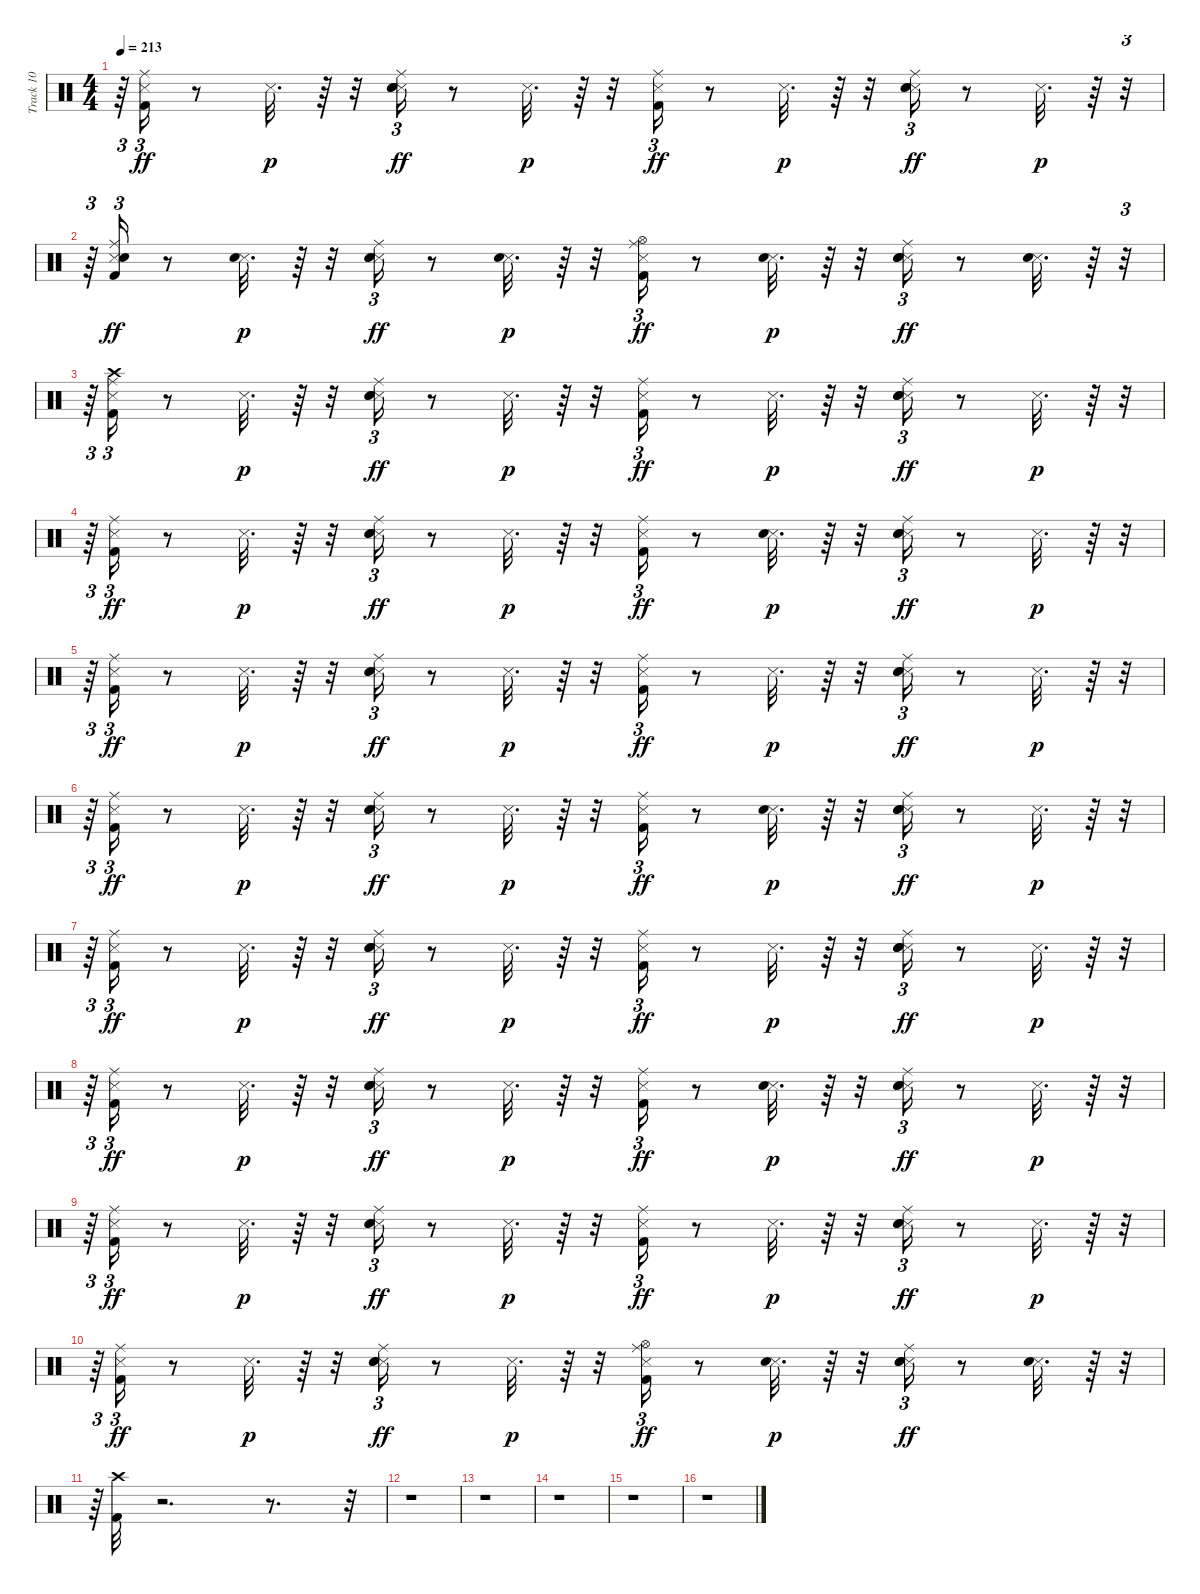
\track ("Track 10" "Track 10") {instrument percussion}
\staff {score}
\articulation defaults
\ts (4 4)
\tempo 213
\clef neutral
\ks c
r.64{tu (3 2) dy p} ("Kick (hit) 2" "Snare (side stick) 3" "Ride (middle)").16{tu (3 2) dy ff} r.8 "Snare (side stick) 3".32{d dy p} r.64 r.32 ("Snare (side stick) 3" "Hand Clap (hit)" "Electric Snare (hit)" "Ride (middle)").16{tu (3 2) dy ff} r.8 "Snare (side stick) 3".32{d dy p} r.64 r.32 ("Kick (hit) 2" "Snare (side stick) 3" "Ride (middle)").16{tu (3 2) dy ff} r.8 "Snare (side stick) 3".32{d dy p} r.64 r.32 ("Snare (side stick) 3" "Hand Clap (hit)" "Electric Snare (hit)" "Ride (middle)").16{tu (3 2) dy ff} r.8 "Snare (side stick) 3".32{d dy p} r.64 r.32{tu (3 2)} |
r.64{tu (3 2)} ("Kick (hit) 2" "Snare (side stick) 3" "Electric Snare (hit)" "Ride (middle)").16{tu (3 2) dy ff} r.8 ("Snare (side stick) 3" "Electric Snare (hit)").32{d dy p} r.64 r.32 ("Snare (side stick) 3" "Hand Clap (hit)" "Electric Snare (hit)" "Ride (middle)").16{tu (3 2) dy ff} r.8 ("Snare (side stick) 3" "Electric Snare (hit)").32{d dy p} r.64 r.32 ("Kick (hit) 2" "Snare (side stick) 3" "Hi-Hat (open)" "Ride (middle)").16{tu (3 2) dy ff} r.8 ("Snare (side stick) 3" "Electric Snare (hit)").32{d dy p} r.64 r.32 ("Snare (side stick) 3" "Hand Clap (hit)" "Electric Snare (hit)" "Ride (middle)").16{tu (3 2) dy ff} r.8 ("Snare (side stick) 3" "Electric Snare (hit)").32{d} r.64 r.32{tu (3 2)} |
r.64{tu (3 2)} ("Kick (hit) 2" "Snare (side stick) 3" "Crash high (hit)" "Ride (middle)").16{tu (3 2)} r.8 "Snare (side stick) 3".32{d dy p} r.64 r.32 ("Snare (side stick) 3" "Hand Clap (hit)" "Electric Snare (hit)" "Ride (middle)").16{tu (3 2) dy ff} r.8 "Snare (side stick) 3".32{d dy p} r.64 r.32 ("Kick (hit) 2" "Snare (side stick) 3" "Ride (middle)").16{tu (3 2) dy ff} r.8 "Snare (side stick) 3".32{d dy p} r.64 r.32 ("Snare (side stick) 3" "Hand Clap (hit)" "Electric Snare (hit)" "Ride (middle)").16{tu (3 2) dy ff} r.8 "Snare (side stick) 3".32{d dy p} r.64 r.32{tu (3 2)} |
r.64{tu (3 2)} ("Kick (hit) 2" "Snare (side stick) 3" "Ride (middle)").16{tu (3 2) dy ff} r.8 "Snare (side stick) 3".32{d dy p} r.64 r.32 ("Snare (side stick) 3" "Hand Clap (hit)" "Electric Snare (hit)" "Ride (middle)").16{tu (3 2) dy ff} r.8 "Snare (side stick) 3".32{d dy p} r.64 r.32 ("Kick (hit) 2" "Snare (side stick) 3" "Ride (middle)").16{tu (3 2) dy ff} r.8 ("Snare (side stick) 3" "Electric Snare (hit)").32{d dy p} r.64 r.32 ("Snare (side stick) 3" "Hand Clap (hit)" "Electric Snare (hit)" "Ride (middle)").16{tu (3 2) dy ff} r.8 "Snare (side stick) 3".32{d dy p} r.64 r.32{tu (3 2)} |
r.64{tu (3 2)} ("Kick (hit) 2" "Snare (side stick) 3" "Ride (middle)").16{tu (3 2) dy ff} r.8 "Snare (side stick) 3".32{d dy p} r.64 r.32 ("Snare (side stick) 3" "Hand Clap (hit)" "Electric Snare (hit)" "Ride (middle)").16{tu (3 2) dy ff} r.8 "Snare (side stick) 3".32{d dy p} r.64 r.32 ("Kick (hit) 2" "Snare (side stick) 3" "Ride (middle)").16{tu (3 2) dy ff} r.8 "Snare (side stick) 3".32{d dy p} r.64 r.32 ("Snare (side stick) 3" "Hand Clap (hit)" "Electric Snare (hit)" "Ride (middle)").16{tu (3 2) dy ff} r.8 "Snare (side stick) 3".32{d dy p} r.64 r.32{tu (3 2)} |
r.64{tu (3 2)} ("Kick (hit) 2" "Snare (side stick) 3" "Ride (middle)").16{tu (3 2) dy ff} r.8 "Snare (side stick) 3".32{d dy p} r.64 r.32 ("Snare (side stick) 3" "Hand Clap (hit)" "Electric Snare (hit)" "Ride (middle)").16{tu (3 2) dy ff} r.8 "Snare (side stick) 3".32{d dy p} r.64 r.32 ("Kick (hit) 2" "Snare (side stick) 3" "Ride (middle)").16{tu (3 2) dy ff} r.8 ("Snare (side stick) 3" "Electric Snare (hit)").32{d dy p} r.64 r.32 ("Snare (side stick) 3" "Hand Clap (hit)" "Electric Snare (hit)" "Ride (middle)").16{tu (3 2) dy ff} r.8 "Snare (side stick) 3".32{d dy p} r.64 r.32{tu (3 2)} |
r.64{tu (3 2)} ("Kick (hit) 2" "Snare (side stick) 3" "Ride (middle)").16{tu (3 2) dy ff} r.8 "Snare (side stick) 3".32{d dy p} r.64 r.32 ("Snare (side stick) 3" "Hand Clap (hit)" "Electric Snare (hit)" "Ride (middle)").16{tu (3 2) dy ff} r.8 "Snare (side stick) 3".32{d dy p} r.64 r.32 ("Kick (hit) 2" "Snare (side stick) 3" "Ride (middle)").16{tu (3 2) dy ff} r.8 "Snare (side stick) 3".32{d dy p} r.64 r.32 ("Snare (side stick) 3" "Hand Clap (hit)" "Electric Snare (hit)" "Ride (middle)").16{tu (3 2) dy ff} r.8 "Snare (side stick) 3".32{d dy p} r.64 r.32{tu (3 2)} |
r.64{tu (3 2)} ("Kick (hit) 2" "Snare (side stick) 3" "Ride (middle)").16{tu (3 2) dy ff} r.8 "Snare (side stick) 3".32{d dy p} r.64 r.32 ("Snare (side stick) 3" "Hand Clap (hit)" "Electric Snare (hit)" "Ride (middle)").16{tu (3 2) dy ff} r.8 "Snare (side stick) 3".32{d dy p} r.64 r.32 ("Kick (hit) 2" "Snare (side stick) 3" "Ride (middle)").16{tu (3 2) dy ff} r.8 ("Snare (side stick) 3" "Electric Snare (hit)").32{d dy p} r.64 r.32 ("Snare (side stick) 3" "Hand Clap (hit)" "Electric Snare (hit)" "Ride (middle)").16{tu (3 2) dy ff} r.8 "Snare (side stick) 3".32{d dy p} r.64 r.32{tu (3 2)} |
r.64{tu (3 2)} ("Kick (hit) 2" "Snare (side stick) 3" "Ride (middle)").16{tu (3 2) dy ff} r.8 "Snare (side stick) 3".32{d dy p} r.64 r.32 ("Snare (side stick) 3" "Hand Clap (hit)" "Electric Snare (hit)" "Ride (middle)").16{tu (3 2) dy ff} r.8 "Snare (side stick) 3".32{d dy p} r.64 r.32 ("Kick (hit) 2" "Snare (side stick) 3" "Ride (middle)").16{tu (3 2) dy ff} r.8 "Snare (side stick) 3".32{d dy p} r.64 r.32 ("Snare (side stick) 3" "Hand Clap (hit)" "Electric Snare (hit)" "Ride (middle)").16{tu (3 2) dy ff} r.8 "Snare (side stick) 3".32{d dy p} r.64 r.32{tu (3 2)} |
r.64{tu (3 2)} ("Kick (hit) 2" "Snare (side stick) 3" "Ride (middle)").16{tu (3 2) dy ff} r.8 "Snare (side stick) 3".32{d dy p} r.64 r.32 ("Snare (side stick) 3" "Hand Clap (hit)" "Electric Snare (hit)" "Ride (middle)").16{tu (3 2) dy ff} r.8 "Snare (side stick) 3".32{d dy p} r.64 r.32 ("Kick (hit) 2" "Snare (side stick) 3" "Hi-Hat (open)" "Ride (middle)").16{tu (3 2) dy ff} r.8 ("Snare (side stick) 3" "Electric Snare (hit)").32{d dy p} r.64 r.32 ("Snare (side stick) 3" "Hand Clap (hit)" "Electric Snare (hit)" "Ride (middle)").16{tu (3 2) dy ff} r.8 ("Snare (side stick) 3" "Electric Snare (hit)").32{d} r.64 r.32{tu (3 2)} |
r.64{tu (3 2)} ("Kick (hit) 2" "Crash high (hit)").32 r.2{d} r.8{d} r.32{tu (3 2)} |
r.1 |
r.1 |
r.1 |
r.1 |
r.1
